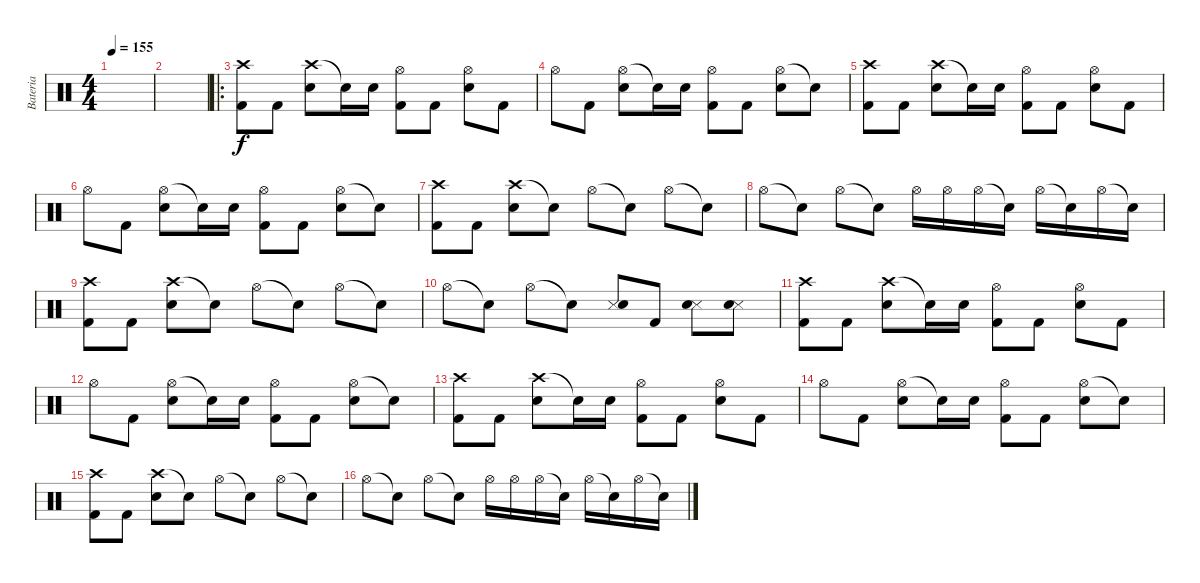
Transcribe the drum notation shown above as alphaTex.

\track ("Bateria" "Bateria") {instrument percussion}
\staff {score}
\articulation defaults
\ts (4 4)
\tempo 155
\clef neutral
\ks c
|
|
\ro
("Crash high (hit)" "Kick (hit) 2").8 "Kick (hit) 2".8 ("Crash high (hit)" "Snare (hit) 2").8 "Snare (hit) 2"{t}.16 "Snare (hit) 2".16 ("Hi-Hat (open)" "Kick (hit) 2").8 "Kick (hit) 2".8 ("Hi-Hat (open)" "Snare (hit) 2").8 "Kick (hit) 2".8 |
"Hi-Hat (open)".8 "Kick (hit) 2".8 ("Hi-Hat (open)" "Snare (hit) 2").8 "Snare (hit) 2"{t}.16 "Snare (hit) 2".16 ("Hi-Hat (open)" "Kick (hit) 2").8 "Kick (hit) 2".8 ("Hi-Hat (open)" "Snare (hit) 2").8 "Snare (hit)"{t}.8 |
("Crash high (hit)" "Kick (hit) 2").8 "Kick (hit) 2".8 ("Crash high (hit)" "Snare (hit) 2").8 "Snare (hit) 2"{t}.16 "Snare (hit) 2".16 ("Hi-Hat (open)" "Kick (hit) 2").8 "Kick (hit) 2".8 ("Hi-Hat (open)" "Snare (hit) 2").8 "Kick (hit) 2".8 |
"Hi-Hat (open)".8 "Kick (hit) 2".8 ("Hi-Hat (open)" "Snare (hit) 2").8 "Snare (hit) 2"{t}.16 "Snare (hit) 2".16 ("Hi-Hat (open)" "Kick (hit) 2").8 "Kick (hit) 2".8 ("Hi-Hat (open)" "Snare (hit) 2").8 "Snare (hit)"{t}.8 |
("Crash high (hit)" "Kick (hit) 2").8 "Kick (hit) 2".8 ("Crash high (hit)" "Snare (hit) 2").8 "Snare (hit) 2"{t}.8 "Hi-Hat (open)".8 "Snare (hit)"{t}.8 "Hi-Hat (open)".8 "Snare (hit)"{t}.8 |
"Hi-Hat (open)".8 "Snare (hit)"{t}.8 "Hi-Hat (open)".8 "Snare (hit)"{t}.8 "Hi-Hat (open)".16 "Hi-Hat (open)".16 "Hi-Hat (open)".16 "Snare (hit)"{t}.16 "Hi-Hat (open)".16 "Snare (hit)"{t}.16 "Hi-Hat (open)".16 "Snare (hit)"{t}.16 |
("Crash high (hit)" "Kick (hit) 2").8 "Kick (hit) 2".8 ("Crash high (hit)" "Snare (hit) 2").8 "Snare (hit) 2"{t}.8 "Hi-Hat (open)".8 "Snare (hit)"{t}.8 "Hi-Hat (open)".8 "Snare (hit)"{t}.8 |
"Hi-Hat (open)".8 "Snare (hit)"{t}.8 "Hi-Hat (open)".8 "Snare (hit)"{t}.8 ("Snare (side stick) 3" "Snare (hit) 2").8 "Kick (hit) 2".8 ("Snare (side stick) 3" "Snare (hit) 2").8 ("Snare (side stick) 3" "Snare (hit) 2").8 |
("Crash high (hit)" "Kick (hit) 2").8 "Kick (hit) 2".8 ("Crash high (hit)" "Snare (hit) 2").8 "Snare (hit) 2"{t}.16 "Snare (hit) 2".16 ("Hi-Hat (open)" "Kick (hit) 2").8 "Kick (hit) 2".8 ("Hi-Hat (open)" "Snare (hit) 2").8 "Kick (hit) 2".8 |
"Hi-Hat (open)".8 "Kick (hit) 2".8 ("Hi-Hat (open)" "Snare (hit) 2").8 "Snare (hit) 2"{t}.16 "Snare (hit) 2".16 ("Hi-Hat (open)" "Kick (hit) 2").8 "Kick (hit) 2".8 ("Hi-Hat (open)" "Snare (hit) 2").8 "Snare (hit)"{t}.8 |
("Crash high (hit)" "Kick (hit) 2").8 "Kick (hit) 2".8 ("Crash high (hit)" "Snare (hit) 2").8 "Snare (hit) 2"{t}.16 "Snare (hit) 2".16 ("Hi-Hat (open)" "Kick (hit) 2").8 "Kick (hit) 2".8 ("Hi-Hat (open)" "Snare (hit) 2").8 "Kick (hit) 2".8 |
"Hi-Hat (open)".8 "Kick (hit) 2".8 ("Hi-Hat (open)" "Snare (hit) 2").8 "Snare (hit) 2"{t}.16 "Snare (hit) 2".16 ("Hi-Hat (open)" "Kick (hit) 2").8 "Kick (hit) 2".8 ("Hi-Hat (open)" "Snare (hit) 2").8 "Snare (hit)"{t}.8 |
("Crash high (hit)" "Kick (hit) 2").8 "Kick (hit) 2".8 ("Crash high (hit)" "Snare (hit) 2").8 "Snare (hit) 2"{t}.8 "Hi-Hat (open)".8 "Snare (hit)"{t}.8 "Hi-Hat (open)".8 "Snare (hit)"{t}.8 |
"Hi-Hat (open)".8 "Snare (hit)"{t}.8 "Hi-Hat (open)".8 "Snare (hit)"{t}.8 "Hi-Hat (open)".16 "Hi-Hat (open)".16 "Hi-Hat (open)".16 "Snare (hit)"{t}.16 "Hi-Hat (open)".16 "Snare (hit)"{t}.16 "Hi-Hat (open)".16 "Snare (hit)"{t}.16
